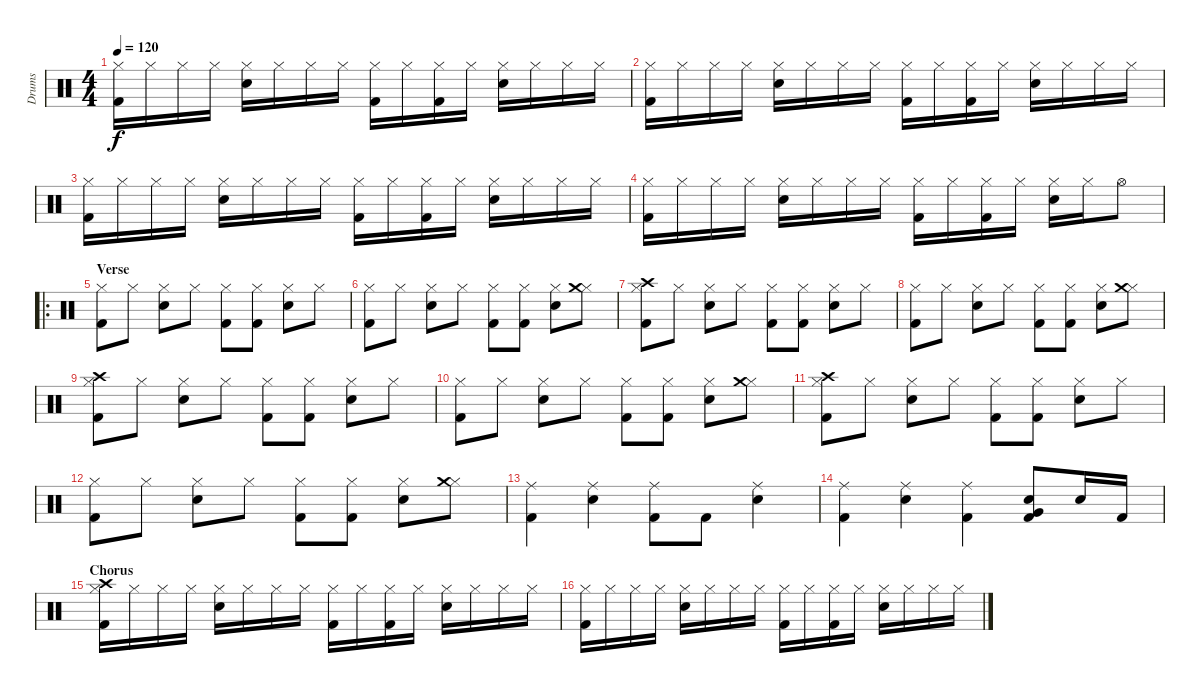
\track ("Drums" "Drums") {instrument percussion}
\staff {score}
\articulation defaults
\ts (4 4)
\tempo 120
\clef neutral
\ks c
("Hi-Hat (closed)" "Kick (hit) 2").16{dy f} "Hi-Hat (closed)".16 "Hi-Hat (closed)".16 "Hi-Hat (closed)".16 ("Hi-Hat (closed)" "Snare (hit) 2").16 "Hi-Hat (closed)".16 "Hi-Hat (closed)".16 "Hi-Hat (closed)".16 ("Hi-Hat (closed)" "Kick (hit) 2").16 "Hi-Hat (closed)".16 ("Hi-Hat (closed)" "Kick (hit) 2").16 "Hi-Hat (closed)".16 ("Hi-Hat (closed)" "Snare (hit) 2").16 "Hi-Hat (closed)".16 "Hi-Hat (closed)".16 "Hi-Hat (closed)".16 |
("Hi-Hat (closed)" "Kick (hit) 2").16 "Hi-Hat (closed)".16 "Hi-Hat (closed)".16 "Hi-Hat (closed)".16 ("Hi-Hat (closed)" "Snare (hit) 2").16 "Hi-Hat (closed)".16 "Hi-Hat (closed)".16 "Hi-Hat (closed)".16 ("Hi-Hat (closed)" "Kick (hit) 2").16 "Hi-Hat (closed)".16 ("Hi-Hat (closed)" "Kick (hit) 2").16 "Hi-Hat (closed)".16 ("Hi-Hat (closed)" "Snare (hit) 2").16 "Hi-Hat (closed)".16 "Hi-Hat (closed)".16 "Hi-Hat (closed)".16 |
("Hi-Hat (closed)" "Kick (hit) 2").16 "Hi-Hat (closed)".16 "Hi-Hat (closed)".16 "Hi-Hat (closed)".16 ("Hi-Hat (closed)" "Snare (hit) 2").16 "Hi-Hat (closed)".16 "Hi-Hat (closed)".16 "Hi-Hat (closed)".16 ("Hi-Hat (closed)" "Kick (hit) 2").16 "Hi-Hat (closed)".16 ("Hi-Hat (closed)" "Kick (hit) 2").16 "Hi-Hat (closed)".16 ("Hi-Hat (closed)" "Snare (hit) 2").16 "Hi-Hat (closed)".16 "Hi-Hat (closed)".16 "Hi-Hat (closed)".16 |
("Hi-Hat (closed)" "Kick (hit) 2").16 "Hi-Hat (closed)".16 "Hi-Hat (closed)".16 "Hi-Hat (closed)".16 ("Hi-Hat (closed)" "Snare (hit) 2").16 "Hi-Hat (closed)".16 "Hi-Hat (closed)".16 "Hi-Hat (closed)".16 ("Hi-Hat (closed)" "Kick (hit) 2").16 "Hi-Hat (closed)".16 ("Hi-Hat (closed)" "Kick (hit) 2").16 "Hi-Hat (closed)".16 ("Hi-Hat (closed)" "Snare (hit) 2").16 "Hi-Hat (closed)".16 "Hi-Hat (open)".8 |
\ro
\section ("" "Verse")
("Hi-Hat (closed)" "Kick (hit) 2").8 "Hi-Hat (closed)".8 ("Hi-Hat (closed)" "Snare (hit) 2").8 "Hi-Hat (closed)".8 ("Hi-Hat (closed)" "Kick (hit) 2").8 ("Hi-Hat (closed)" "Kick (hit) 2").8 ("Hi-Hat (closed)" "Snare (hit) 2").8 "Hi-Hat (closed)".8 |
("Hi-Hat (closed)" "Kick (hit) 2").8 "Hi-Hat (closed)".8 ("Hi-Hat (closed)" "Snare (hit) 2").8 "Hi-Hat (closed)".8 ("Hi-Hat (closed)" "Kick (hit) 2").8 ("Hi-Hat (closed)" "Kick (hit) 2").8 ("Hi-Hat (closed)" "Snare (hit) 2").8 ("Hi-Hat (closed)" "Crash medium (hit)").8 |
("Hi-Hat (closed)" "Crash high (hit)" "Kick (hit) 2").8 "Hi-Hat (closed)".8 ("Hi-Hat (closed)" "Snare (hit) 2").8 "Hi-Hat (closed)".8 ("Hi-Hat (closed)" "Kick (hit) 2").8 ("Hi-Hat (closed)" "Kick (hit) 2").8 ("Hi-Hat (closed)" "Snare (hit) 2").8 "Hi-Hat (closed)".8 |
("Hi-Hat (closed)" "Kick (hit) 2").8 "Hi-Hat (closed)".8 ("Hi-Hat (closed)" "Snare (hit) 2").8 "Hi-Hat (closed)".8 ("Hi-Hat (closed)" "Kick (hit) 2").8 ("Hi-Hat (closed)" "Kick (hit) 2").8 ("Hi-Hat (closed)" "Snare (hit) 2").8 ("Hi-Hat (closed)" "Crash medium (hit)").8 |
("Hi-Hat (closed)" "Crash high (hit)" "Kick (hit) 2").8 "Hi-Hat (closed)".8 ("Hi-Hat (closed)" "Snare (hit) 2").8 "Hi-Hat (closed)".8 ("Hi-Hat (closed)" "Kick (hit) 2").8 ("Hi-Hat (closed)" "Kick (hit) 2").8 ("Hi-Hat (closed)" "Snare (hit) 2").8 "Hi-Hat (closed)".8 |
("Hi-Hat (closed)" "Kick (hit) 2").8 "Hi-Hat (closed)".8 ("Hi-Hat (closed)" "Snare (hit) 2").8 "Hi-Hat (closed)".8 ("Hi-Hat (closed)" "Kick (hit) 2").8 ("Hi-Hat (closed)" "Kick (hit) 2").8 ("Hi-Hat (closed)" "Snare (hit) 2").8 ("Hi-Hat (closed)" "Crash medium (hit)").8 |
("Hi-Hat (closed)" "Crash high (hit)" "Kick (hit) 2").8 "Hi-Hat (closed)".8 ("Hi-Hat (closed)" "Snare (hit) 2").8 "Hi-Hat (closed)".8 ("Hi-Hat (closed)" "Kick (hit) 2").8 ("Hi-Hat (closed)" "Kick (hit) 2").8 ("Hi-Hat (closed)" "Snare (hit) 2").8 "Hi-Hat (closed)".8 |
("Hi-Hat (closed)" "Kick (hit) 2").8 "Hi-Hat (closed)".8 ("Hi-Hat (closed)" "Snare (hit) 2").8 "Hi-Hat (closed)".8 ("Hi-Hat (closed)" "Kick (hit) 2").8 ("Hi-Hat (closed)" "Kick (hit) 2").8 ("Hi-Hat (closed)" "Snare (hit) 2").8 ("Hi-Hat (closed)" "Crash medium (hit)").8 |
("Ride (middle)" "Kick (hit) 2").4 ("Ride (middle)" "Snare (hit) 2").4 ("Ride (middle)" "Kick (hit) 2").8 "Kick (hit) 2".8 ("Ride (middle)" "Snare (hit) 2").4 |
("Ride (middle)" "Kick (hit) 2").4 ("Ride (middle)" "Snare (hit) 2").4 ("Ride (middle)" "Kick (hit) 2").4 ("Snare (hit) 2" "Very Low Tom (hit)" "Kick (hit) 2").8 "Snare (hit) 2".16 "Kick (hit) 2".16 |
\section ("" "Chorus")
("Hi-Hat (closed)" "Crash high (hit)" "Kick (hit) 2").16 "Hi-Hat (closed)".16 "Hi-Hat (closed)".16 "Hi-Hat (closed)".16 ("Hi-Hat (closed)" "Snare (hit) 2").16 "Hi-Hat (closed)".16 "Hi-Hat (closed)".16 "Hi-Hat (closed)".16 ("Hi-Hat (closed)" "Kick (hit) 2").16 "Hi-Hat (closed)".16 ("Hi-Hat (closed)" "Kick (hit) 2").16 "Hi-Hat (closed)".16 ("Hi-Hat (closed)" "Snare (hit) 2").16 "Hi-Hat (closed)".16 "Hi-Hat (closed)".16 "Hi-Hat (closed)".16 |
("Hi-Hat (closed)" "Kick (hit) 2").16 "Hi-Hat (closed)".16 "Hi-Hat (closed)".16 "Hi-Hat (closed)".16 ("Hi-Hat (closed)" "Snare (hit) 2").16 "Hi-Hat (closed)".16 "Hi-Hat (closed)".16 "Hi-Hat (closed)".16 ("Hi-Hat (closed)" "Kick (hit) 2").16 "Hi-Hat (closed)".16 ("Hi-Hat (closed)" "Kick (hit) 2").16 "Hi-Hat (closed)".16 ("Hi-Hat (closed)" "Snare (hit) 2").16 "Hi-Hat (closed)".16 "Hi-Hat (closed)".16 "Hi-Hat (closed)".16
